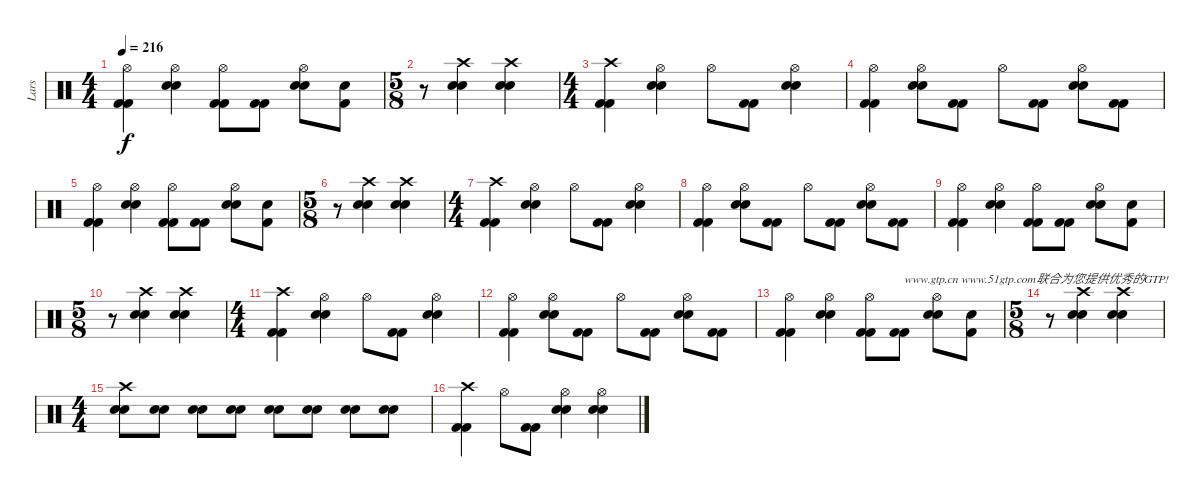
\track ("Lars" "Lars") {instrument percussion}
\staff {score}
\articulation defaults
\ts (4 4)
\tempo 216
\clef neutral
\ks c
("Hi-Hat (open)" "Kick (hit) 2" "Kick (hit) 2").4{dy f} ("Hi-Hat (open)" "Electric Snare (hit)" "Electric Snare (hit)").4 ("Hi-Hat (open)" "Kick (hit) 2" "Kick (hit) 2").8 ("Kick (hit) 2" "Kick (hit) 2").8 ("Hi-Hat (open)" "Electric Snare (hit)" "Electric Snare (hit)").8 ("Kick (hit) 2" "Snare (hit)").8 |
\ts (5 8)
r.8 ("Crash high (hit)" "Electric Snare (hit)" "Electric Snare (hit)").4 ("Crash high (hit)" "Electric Snare (hit)" "Electric Snare (hit)").4 |
\ts (4 4)
("Crash high (hit)" "Kick (hit) 2" "Kick (hit) 2").4 ("Hi-Hat (open)" "Electric Snare (hit)" "Electric Snare (hit)").4 "Hi-Hat (open)".8 ("Kick (hit) 2" "Kick (hit) 2").8 ("Hi-Hat (open)" "Electric Snare (hit)" "Electric Snare (hit)").4 |
("Hi-Hat (open)" "Kick (hit) 2" "Kick (hit) 2").4 ("Hi-Hat (open)" "Electric Snare (hit)" "Electric Snare (hit)").8 ("Kick (hit) 2" "Kick (hit) 2").8 "Hi-Hat (open)".8 ("Kick (hit) 2" "Kick (hit) 2").8 ("Hi-Hat (open)" "Electric Snare (hit)" "Electric Snare (hit)").8 ("Kick (hit) 2" "Kick (hit) 2").8 |
("Hi-Hat (open)" "Kick (hit) 2" "Kick (hit) 2").4 ("Hi-Hat (open)" "Electric Snare (hit)" "Electric Snare (hit)").4 ("Hi-Hat (open)" "Kick (hit) 2" "Kick (hit) 2").8 ("Kick (hit) 2" "Kick (hit) 2").8 ("Hi-Hat (open)" "Electric Snare (hit)" "Electric Snare (hit)").8 ("Kick (hit) 2" "Snare (hit)").8 |
\ts (5 8)
r.8 ("Crash high (hit)" "Electric Snare (hit)" "Electric Snare (hit)").4 ("Crash high (hit)" "Electric Snare (hit)" "Electric Snare (hit)").4 |
\ts (4 4)
("Crash high (hit)" "Kick (hit) 2" "Kick (hit) 2").4 ("Hi-Hat (open)" "Electric Snare (hit)" "Electric Snare (hit)").4 "Hi-Hat (open)".8 ("Kick (hit) 2" "Kick (hit) 2").8 ("Hi-Hat (open)" "Electric Snare (hit)" "Electric Snare (hit)").4 |
("Hi-Hat (open)" "Kick (hit) 2" "Kick (hit) 2").4 ("Hi-Hat (open)" "Electric Snare (hit)" "Electric Snare (hit)").8 ("Kick (hit) 2" "Kick (hit) 2").8 "Hi-Hat (open)".8 ("Kick (hit) 2" "Kick (hit) 2").8 ("Hi-Hat (open)" "Electric Snare (hit)" "Electric Snare (hit)").8 ("Kick (hit) 2" "Kick (hit) 2").8 |
("Hi-Hat (open)" "Kick (hit) 2" "Kick (hit) 2").4 ("Hi-Hat (open)" "Electric Snare (hit)" "Electric Snare (hit)").4 ("Hi-Hat (open)" "Kick (hit) 2" "Kick (hit) 2").8 ("Kick (hit) 2" "Kick (hit) 2").8 ("Hi-Hat (open)" "Electric Snare (hit)" "Electric Snare (hit)").8 ("Kick (hit) 2" "Snare (hit)").8 |
\ts (5 8)
r.8 ("Crash high (hit)" "Electric Snare (hit)" "Electric Snare (hit)").4 ("Crash high (hit)" "Electric Snare (hit)" "Electric Snare (hit)").4 |
\ts (4 4)
("Crash high (hit)" "Kick (hit) 2" "Kick (hit) 2").4 ("Hi-Hat (open)" "Electric Snare (hit)" "Electric Snare (hit)").4 "Hi-Hat (open)".8 ("Kick (hit) 2" "Kick (hit) 2").8 ("Hi-Hat (open)" "Electric Snare (hit)" "Electric Snare (hit)").4 |
("Hi-Hat (open)" "Kick (hit) 2" "Kick (hit) 2").4 ("Hi-Hat (open)" "Electric Snare (hit)" "Electric Snare (hit)").8 ("Kick (hit) 2" "Kick (hit) 2").8 "Hi-Hat (open)".8 ("Kick (hit) 2" "Kick (hit) 2").8 ("Hi-Hat (open)" "Electric Snare (hit)" "Electric Snare (hit)").8 ("Kick (hit) 2" "Kick (hit) 2").8 |
("Hi-Hat (open)" "Kick (hit) 2" "Kick (hit) 2").4 ("Hi-Hat (open)" "Electric Snare (hit)" "Electric Snare (hit)").4 ("Hi-Hat (open)" "Kick (hit) 2" "Kick (hit) 2").8 ("Kick (hit) 2" "Kick (hit) 2").8{txt "www.gtp.cn www.51gtp.com联合为您提供优秀的GTP!"} ("Hi-Hat (open)" "Electric Snare (hit)" "Electric Snare (hit)").8 ("Kick (hit) 2" "Snare (hit)").8 |
\ts (5 8)
r.8 ("Crash high (hit)" "Electric Snare (hit)" "Electric Snare (hit)").4 ("Crash high (hit)" "Electric Snare (hit)" "Electric Snare (hit)").4 |
\ts (4 4)
("Crash high (hit)" "Electric Snare (hit)" "Electric Snare (hit)").8 ("Electric Snare (hit)" "Electric Snare (hit)").8 ("Electric Snare (hit)" "Electric Snare (hit)").8 ("Electric Snare (hit)" "Electric Snare (hit)").8 ("Electric Snare (hit)" "Electric Snare (hit)").8 ("Electric Snare (hit)" "Electric Snare (hit)").8 ("Electric Snare (hit)" "Electric Snare (hit)").8 ("Electric Snare (hit)" "Electric Snare (hit)").8 |
("Crash high (hit)" "Kick (hit) 2" "Kick (hit) 2").4 "Hi-Hat (open)".8 ("Kick (hit) 2" "Kick (hit) 2").8 ("Hi-Hat (open)" "Electric Snare (hit)" "Electric Snare (hit)").4 ("Hi-Hat (open)" "Electric Snare (hit)" "Electric Snare (hit)").4
